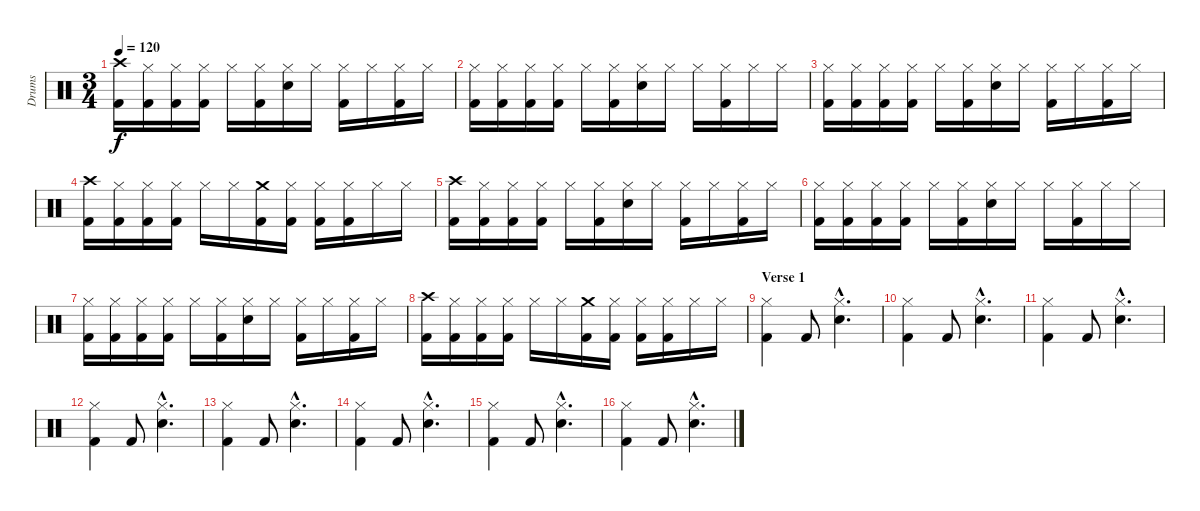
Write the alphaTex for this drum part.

\track ("Drums" "Drums") {instrument percussion}
\staff {score}
\articulation defaults
\ts (3 4)
\tempo 120
\clef neutral
\ks c
("Crash high (hit)" "Kick (hit) 2").16{dy f} ("Hi-Hat (closed)" "Kick (hit) 2").16 ("Hi-Hat (closed)" "Kick (hit) 2").16 ("Hi-Hat (closed)" "Kick (hit) 2").16 "Hi-Hat (closed)".16 ("Hi-Hat (closed)" "Kick (hit) 2").16 ("Hi-Hat (closed)" "Electric Snare (hit)").16 "Hi-Hat (closed)".16 ("Hi-Hat (closed)" "Kick (hit) 2").16 "Hi-Hat (closed)".16 ("Hi-Hat (closed)" "Kick (hit) 2").16 "Hi-Hat (closed)".16 |
("Hi-Hat (closed)" "Kick (hit) 2").16 ("Hi-Hat (closed)" "Kick (hit) 2").16 ("Hi-Hat (closed)" "Kick (hit) 2").16 ("Hi-Hat (closed)" "Kick (hit) 2").16 "Hi-Hat (closed)".16 ("Hi-Hat (closed)" "Kick (hit) 2").16 ("Hi-Hat (closed)" "Electric Snare (hit)").16 "Hi-Hat (closed)".16 "Hi-Hat (closed)".16 ("Hi-Hat (closed)" "Kick (hit) 2").16 "Hi-Hat (closed)".16 "Hi-Hat (closed)".16 |
("Hi-Hat (closed)" "Kick (hit) 2").16 ("Hi-Hat (closed)" "Kick (hit) 2").16 ("Hi-Hat (closed)" "Kick (hit) 2").16 ("Hi-Hat (closed)" "Kick (hit) 2").16 "Hi-Hat (closed)".16 ("Hi-Hat (closed)" "Kick (hit) 2").16 ("Hi-Hat (closed)" "Electric Snare (hit)").16 "Hi-Hat (closed)".16 ("Hi-Hat (closed)" "Kick (hit) 2").16 "Hi-Hat (closed)".16 ("Hi-Hat (closed)" "Kick (hit) 2").16 "Hi-Hat (closed)".16 |
("Crash high (hit)" "Kick (hit) 2").16 ("Hi-Hat (closed)" "Kick (hit) 2").16 ("Hi-Hat (closed)" "Kick (hit) 2").16 ("Hi-Hat (closed)" "Kick (hit) 2").16 "Hi-Hat (closed)".16 "Hi-Hat (closed)".16 ("Crash medium (hit)" "Kick (hit) 2").16 ("Hi-Hat (closed)" "Kick (hit) 2").16 ("Hi-Hat (closed)" "Kick (hit) 2").16 ("Hi-Hat (closed)" "Kick (hit) 2").16 "Hi-Hat (closed)".16 "Hi-Hat (closed)".16 |
("Crash high (hit)" "Kick (hit) 2").16 ("Hi-Hat (closed)" "Kick (hit) 2").16 ("Hi-Hat (closed)" "Kick (hit) 2").16 ("Hi-Hat (closed)" "Kick (hit) 2").16 "Hi-Hat (closed)".16 ("Hi-Hat (closed)" "Kick (hit) 2").16 ("Hi-Hat (closed)" "Electric Snare (hit)").16 "Hi-Hat (closed)".16 ("Hi-Hat (closed)" "Kick (hit) 2").16 "Hi-Hat (closed)".16 ("Hi-Hat (closed)" "Kick (hit) 2").16 "Hi-Hat (closed)".16 |
("Hi-Hat (closed)" "Kick (hit) 2").16 ("Hi-Hat (closed)" "Kick (hit) 2").16 ("Hi-Hat (closed)" "Kick (hit) 2").16 ("Hi-Hat (closed)" "Kick (hit) 2").16 "Hi-Hat (closed)".16 ("Hi-Hat (closed)" "Kick (hit) 2").16 ("Hi-Hat (closed)" "Electric Snare (hit)").16 "Hi-Hat (closed)".16 "Hi-Hat (closed)".16 ("Hi-Hat (closed)" "Kick (hit) 2").16 "Hi-Hat (closed)".16 "Hi-Hat (closed)".16 |
("Hi-Hat (closed)" "Kick (hit) 2").16 ("Hi-Hat (closed)" "Kick (hit) 2").16 ("Hi-Hat (closed)" "Kick (hit) 2").16 ("Hi-Hat (closed)" "Kick (hit) 2").16 "Hi-Hat (closed)".16 ("Hi-Hat (closed)" "Kick (hit) 2").16 ("Hi-Hat (closed)" "Electric Snare (hit)").16 "Hi-Hat (closed)".16 ("Hi-Hat (closed)" "Kick (hit) 2").16 "Hi-Hat (closed)".16 ("Hi-Hat (closed)" "Kick (hit) 2").16 "Hi-Hat (closed)".16 |
("Crash high (hit)" "Kick (hit) 2").16 ("Hi-Hat (closed)" "Kick (hit) 2").16 ("Hi-Hat (closed)" "Kick (hit) 2").16 ("Hi-Hat (closed)" "Kick (hit) 2").16 "Hi-Hat (closed)".16 "Hi-Hat (closed)".16 ("Crash medium (hit)" "Kick (hit) 2").16 ("Hi-Hat (closed)" "Kick (hit) 2").16 ("Hi-Hat (closed)" "Kick (hit) 2").16 ("Hi-Hat (closed)" "Kick (hit) 2").16 "Hi-Hat (closed)".16 "Hi-Hat (closed)".16 |
\section ("" "Verse 1")
("Hi-Hat (closed)" "Kick (hit) 2").4 "Kick (hit) 2".8 ("Hi-Hat (closed)"{hac} "Snare (hit) 2"{hac}).4{d} |
("Hi-Hat (closed)" "Kick (hit) 2").4 "Kick (hit) 2".8 ("Hi-Hat (closed)"{hac} "Snare (hit) 2"{hac}).4{d} |
("Hi-Hat (closed)" "Kick (hit) 2").4 "Kick (hit) 2".8 ("Hi-Hat (closed)"{hac} "Snare (hit) 2"{hac}).4{d} |
("Hi-Hat (closed)" "Kick (hit) 2").4 "Kick (hit) 2".8 ("Hi-Hat (closed)"{hac} "Snare (hit) 2"{hac}).4{d} |
("Hi-Hat (closed)" "Kick (hit) 2").4 "Kick (hit) 2".8 ("Hi-Hat (closed)"{hac} "Snare (hit) 2"{hac}).4{d} |
("Hi-Hat (closed)" "Kick (hit) 2").4 "Kick (hit) 2".8 ("Hi-Hat (closed)"{hac} "Snare (hit) 2"{hac}).4{d} |
("Hi-Hat (closed)" "Kick (hit) 2").4 "Kick (hit) 2".8 ("Hi-Hat (closed)"{hac} "Snare (hit) 2"{hac}).4{d} |
("Hi-Hat (closed)" "Kick (hit) 2").4 "Kick (hit) 2".8 ("Hi-Hat (closed)"{hac} "Snare (hit) 2"{hac}).4{d}
